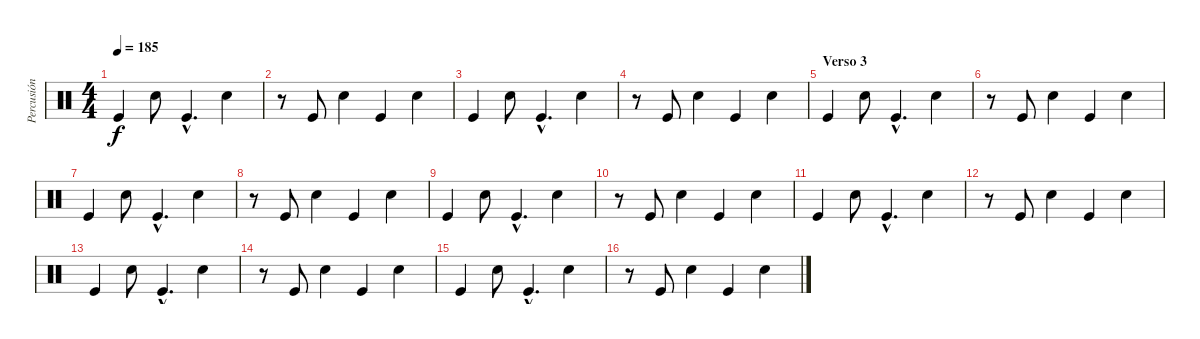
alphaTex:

\track ("Percusión" "Percusión") {instrument percussion}
\staff {score}
\articulation defaults
\ts (4 4)
\tempo 185
\clef neutral
\ks c "Kick (hit)".4{dy f} "Electric Snare (hit)".8 "Kick (hit)"{hac}.4{d} "Electric Snare (hit)".4
|
r.8 "Kick (hit)".8 "Electric Snare (hit)".4 "Kick (hit)".4 "Electric Snare (hit)".4 |
"Kick (hit)".4 "Electric Snare (hit)".8 "Kick (hit)"{hac}.4{d} "Electric Snare (hit)".4 |
r.8 "Kick (hit)".8 "Electric Snare (hit)".4 "Kick (hit)".4 "Electric Snare (hit)".4 |
\section ("" "Verso 3")
"Kick (hit)".4 "Electric Snare (hit)".8 "Kick (hit)"{hac}.4{d} "Electric Snare (hit)".4 |
r.8 "Kick (hit)".8 "Electric Snare (hit)".4 "Kick (hit)".4 "Electric Snare (hit)".4 |
"Kick (hit)".4 "Electric Snare (hit)".8 "Kick (hit)"{hac}.4{d} "Electric Snare (hit)".4 |
r.8 "Kick (hit)".8 "Electric Snare (hit)".4 "Kick (hit)".4 "Electric Snare (hit)".4 |
"Kick (hit)".4 "Electric Snare (hit)".8 "Kick (hit)"{hac}.4{d} "Electric Snare (hit)".4 |
r.8 "Kick (hit)".8 "Electric Snare (hit)".4 "Kick (hit)".4 "Electric Snare (hit)".4 |
"Kick (hit)".4 "Electric Snare (hit)".8 "Kick (hit)"{hac}.4{d} "Electric Snare (hit)".4 |
r.8 "Kick (hit)".8 "Electric Snare (hit)".4 "Kick (hit)".4 "Electric Snare (hit)".4 |
"Kick (hit)".4 "Electric Snare (hit)".8 "Kick (hit)"{hac}.4{d} "Electric Snare (hit)".4 |
r.8 "Kick (hit)".8 "Electric Snare (hit)".4 "Kick (hit)".4 "Electric Snare (hit)".4 |
"Kick (hit)".4 "Electric Snare (hit)".8 "Kick (hit)"{hac}.4{d} "Electric Snare (hit)".4 |
r.8 "Kick (hit)".8 "Electric Snare (hit)".4 "Kick (hit)".4 "Electric Snare (hit)".4
